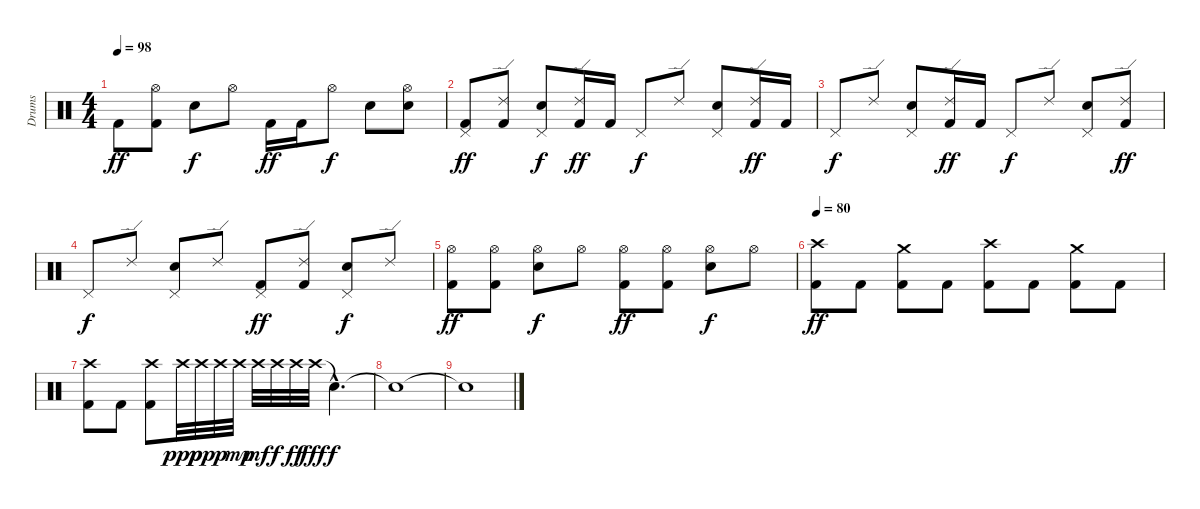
\track ("Drums" "Drums") {instrument percussion}
\staff {score}
\articulation defaults
\ts (4 4)
\tempo 98
\clef neutral
\ks c "Kick (hit) 2".8{dy ff}
("Hi-Hat (open)" "Kick (hit) 2").8 "Snare (hit) 2".8{dy f} "Hi-Hat (open)".8 "Kick (hit) 2".16{dy ff} "Kick (hit) 2".16 "Hi-Hat (open)".8{dy f} "Snare (hit) 2".8 ("Hi-Hat (open)" "Snare (hit) 2").8 |
("Pedal Hi-Hat (hit)" "Kick (hit) 2").8{dy ff} ("Ride (edge) 2" "Kick (hit) 2").8 ("Pedal Hi-Hat (hit)" "Snare (hit) 2").8{dy f} ("Ride (edge) 2" "Kick (hit) 2").16{dy ff} "Kick (hit) 2".16 "Pedal Hi-Hat (hit)".8{dy f} "Ride (edge) 2".8 ("Pedal Hi-Hat (hit)" "Snare (hit) 2").8 ("Ride (edge) 2" "Kick (hit) 2").16{dy ff} "Kick (hit) 2".16 |
"Pedal Hi-Hat (hit)".8{dy f} "Ride (edge) 2".8 ("Pedal Hi-Hat (hit)" "Snare (hit) 2").8 ("Ride (edge) 2" "Kick (hit) 2").16{dy ff} "Kick (hit) 2".16 "Pedal Hi-Hat (hit)".8{dy f} "Ride (edge) 2".8 ("Pedal Hi-Hat (hit)" "Snare (hit) 2").8 ("Ride (edge) 2" "Kick (hit) 2").8{dy ff} |
"Pedal Hi-Hat (hit)".8{dy f} "Ride (edge) 2".8 ("Pedal Hi-Hat (hit)" "Snare (hit) 2").8 "Ride (edge) 2".8 ("Pedal Hi-Hat (hit)" "Kick (hit) 2").8{dy ff} ("Ride (edge) 2" "Kick (hit) 2").8 ("Pedal Hi-Hat (hit)" "Snare (hit) 2").8{dy f} "Ride (edge) 2".8 |
("Hi-Hat (open)" "Kick (hit) 2").8{dy ff} ("Hi-Hat (open)" "Kick (hit) 2").8 ("Hi-Hat (open)" "Snare (hit) 2").8{dy f} "Hi-Hat (open)".8 ("Hi-Hat (open)" "Kick (hit) 2").8{dy ff} ("Hi-Hat (open)" "Kick (hit) 2").8 ("Hi-Hat (open)" "Snare (hit) 2").8{dy f} "Hi-Hat (open)".8 |
\tempo 65
\tempo 80
("Crash high (hit)" "Kick (hit) 2").8{dy ff} "Kick (hit) 2".8 ("Crash medium (hit)" "Kick (hit) 2").8 "Kick (hit) 2".8 ("Crash high (hit)" "Kick (hit) 2").8 "Kick (hit) 2".8 ("Crash medium (hit)" "Kick (hit) 2").8 "Kick (hit) 2".8 |
("Crash high (hit)" "Kick (hit) 2").8 "Kick (hit) 2".8 ("Crash high (hit)" "Kick (hit) 2").8 "Crash high (hit)".32{dy ppp} "Crash high (hit)".32{dy pp} "Crash high (hit)".32{dy p} "Crash high (hit)".32{dy mp} "Crash high (hit)".32{dy mf} "Crash high (hit)".32{dy f} "Crash high (hit)".32{dy ff} "Crash high (hit)".32{dy fff} "Snare (hit)"{hac t}.4{d dy f} |
"Snare (hit)"{t}.1 |
"Snare (hit)"{t}.1
